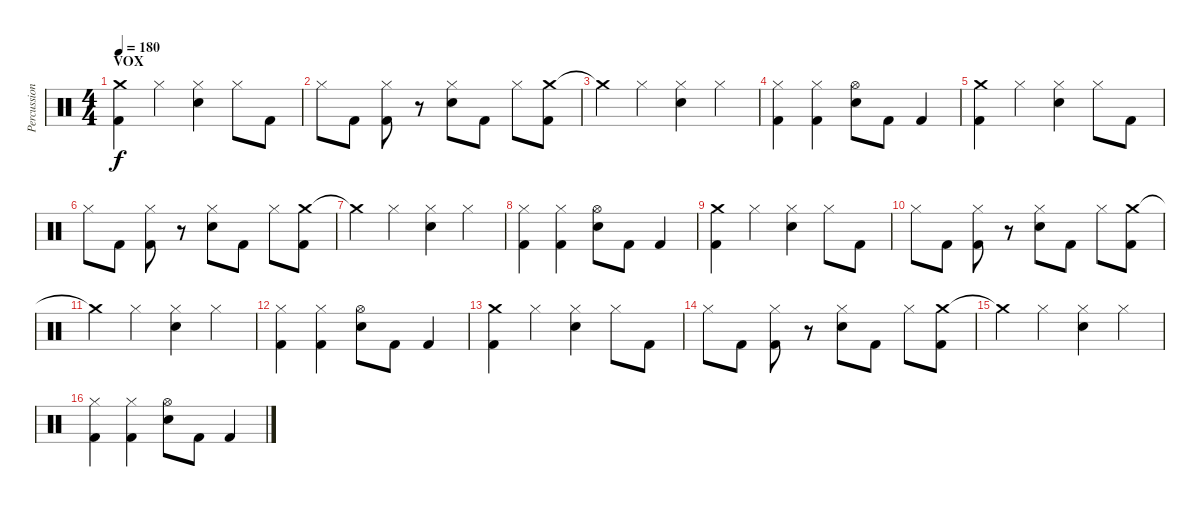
\track ("Percussion" "Percussion") {instrument percussion}
\staff {score}
\articulation defaults
\ts (4 4)
\section ("" "VOX")
\tempo 180
\clef neutral
\ks c
("Crash medium (hit)" "Kick (hit) 2").4{dy f} "Hi-Hat (closed)".4 ("Hi-Hat (closed)" "Snare (hit) 2").4 "Hi-Hat (closed)".8 "Kick (hit) 2".8 |
"Hi-Hat (closed)".8 "Kick (hit) 2".8 ("Hi-Hat (closed)" "Kick (hit) 2").8 r.8 ("Hi-Hat (closed)" "Snare (hit) 2").8 "Kick (hit) 2".8 "Hi-Hat (closed)".8 ("Crash medium (hit)" "Kick (hit) 2").8 |
"Crash medium (hit)"{t}.4 "Hi-Hat (closed)".4 ("Hi-Hat (closed)" "Snare (hit) 2").4 "Hi-Hat (closed)".4 |
("Hi-Hat (closed)" "Kick (hit) 2").4 ("Hi-Hat (closed)" "Kick (hit) 2").4 ("Hi-Hat (open)" "Snare (hit) 2").8 "Kick (hit) 2".8 "Kick (hit) 2".4 |
("Crash medium (hit)" "Kick (hit) 2").4 "Hi-Hat (closed)".4 ("Hi-Hat (closed)" "Snare (hit) 2").4 "Hi-Hat (closed)".8 "Kick (hit) 2".8 |
"Hi-Hat (closed)".8 "Kick (hit) 2".8 ("Hi-Hat (closed)" "Kick (hit) 2").8 r.8 ("Hi-Hat (closed)" "Snare (hit) 2").8 "Kick (hit) 2".8 "Hi-Hat (closed)".8 ("Crash medium (hit)" "Kick (hit) 2").8 |
"Crash medium (hit)"{t}.4 "Hi-Hat (closed)".4 ("Hi-Hat (closed)" "Snare (hit) 2").4 "Hi-Hat (closed)".4 |
("Hi-Hat (closed)" "Kick (hit) 2").4 ("Hi-Hat (closed)" "Kick (hit) 2").4 ("Hi-Hat (open)" "Snare (hit) 2").8 "Kick (hit) 2".8 "Kick (hit) 2".4 |
("Crash medium (hit)" "Kick (hit) 2").4 "Hi-Hat (closed)".4 ("Hi-Hat (closed)" "Snare (hit) 2").4 "Hi-Hat (closed)".8 "Kick (hit) 2".8 |
"Hi-Hat (closed)".8 "Kick (hit) 2".8 ("Hi-Hat (closed)" "Kick (hit) 2").8 r.8 ("Hi-Hat (closed)" "Snare (hit) 2").8 "Kick (hit) 2".8 "Hi-Hat (closed)".8 ("Crash medium (hit)" "Kick (hit) 2").8 |
"Crash medium (hit)"{t}.4 "Hi-Hat (closed)".4 ("Hi-Hat (closed)" "Snare (hit) 2").4 "Hi-Hat (closed)".4 |
("Hi-Hat (closed)" "Kick (hit) 2").4 ("Hi-Hat (closed)" "Kick (hit) 2").4 ("Hi-Hat (open)" "Snare (hit) 2").8 "Kick (hit) 2".8 "Kick (hit) 2".4 |
("Crash medium (hit)" "Kick (hit) 2").4 "Hi-Hat (closed)".4 ("Hi-Hat (closed)" "Snare (hit) 2").4 "Hi-Hat (closed)".8 "Kick (hit) 2".8 |
"Hi-Hat (closed)".8 "Kick (hit) 2".8 ("Hi-Hat (closed)" "Kick (hit) 2").8 r.8 ("Hi-Hat (closed)" "Snare (hit) 2").8 "Kick (hit) 2".8 "Hi-Hat (closed)".8 ("Crash medium (hit)" "Kick (hit) 2").8 |
"Crash medium (hit)"{t}.4 "Hi-Hat (closed)".4 ("Hi-Hat (closed)" "Snare (hit) 2").4 "Hi-Hat (closed)".4 |
("Hi-Hat (closed)" "Kick (hit) 2").4 ("Hi-Hat (closed)" "Kick (hit) 2").4 ("Hi-Hat (open)" "Snare (hit) 2").8 "Kick (hit) 2".8 "Kick (hit) 2".4
